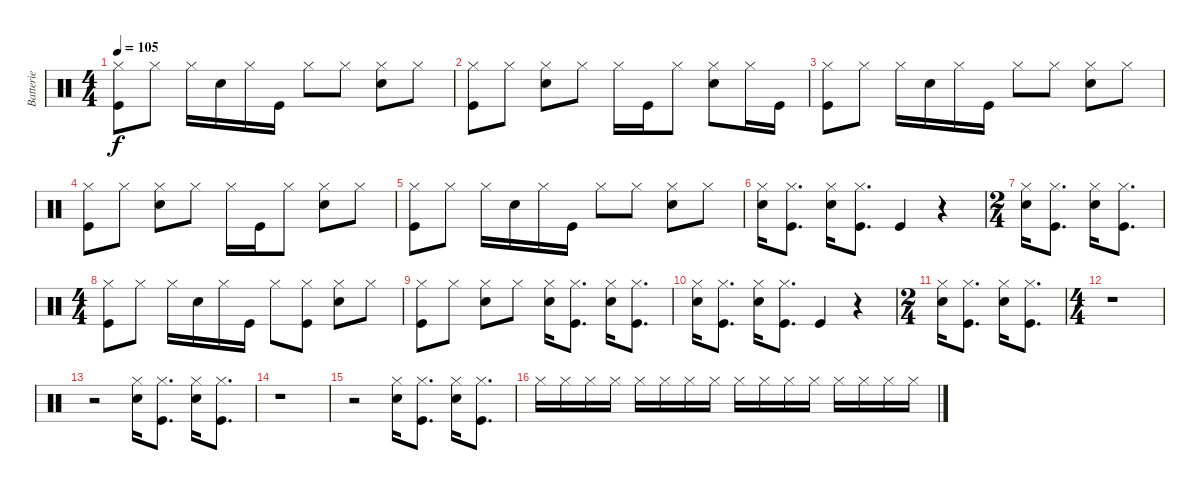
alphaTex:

\track ("Batterie" "Batterie") {instrument percussion}
\staff {score}
\articulation defaults
\ts (4 4)
\tempo 105
\clef neutral
\ks c
("Hi-Hat (closed)" "Kick (hit)").8{dy f} "Hi-Hat (closed)".8 "Hi-Hat (closed)".16 "Snare (hit) 2".16 "Hi-Hat (closed)".16 "Kick (hit)".16 "Hi-Hat (closed)".8 "Hi-Hat (closed)".8 ("Hi-Hat (closed)" "Snare (hit) 2").8 "Hi-Hat (closed)".8 |
("Hi-Hat (closed)" "Kick (hit)").8 "Hi-Hat (closed)".8 ("Hi-Hat (closed)" "Snare (hit) 2").8 "Hi-Hat (closed)".8 "Hi-Hat (closed)".16 "Kick (hit)".16 "Hi-Hat (closed)".8 ("Hi-Hat (closed)" "Snare (hit) 2").8 "Hi-Hat (closed)".16 "Kick (hit)".16 |
("Hi-Hat (closed)" "Kick (hit)").8 "Hi-Hat (closed)".8 "Hi-Hat (closed)".16 "Snare (hit) 2".16 "Hi-Hat (closed)".16 "Kick (hit)".16 "Hi-Hat (closed)".8 "Hi-Hat (closed)".8 ("Hi-Hat (closed)" "Snare (hit) 2").8 "Hi-Hat (closed)".8 |
("Hi-Hat (closed)" "Kick (hit)").8 "Hi-Hat (closed)".8 ("Hi-Hat (closed)" "Snare (hit) 2").8 "Hi-Hat (closed)".8 "Hi-Hat (closed)".16 "Kick (hit)".16 "Hi-Hat (closed)".8 ("Hi-Hat (closed)" "Snare (hit) 2").8 "Hi-Hat (closed)".8 |
("Hi-Hat (closed)" "Kick (hit)").8 "Hi-Hat (closed)".8 "Hi-Hat (closed)".16 "Snare (hit) 2".16 "Hi-Hat (closed)".16 "Kick (hit)".16 "Hi-Hat (closed)".8 "Hi-Hat (closed)".8 ("Hi-Hat (closed)" "Snare (hit) 2").8 "Hi-Hat (closed)".8 |
("Hi-Hat (closed)" "Snare (hit) 2").16 ("Hi-Hat (closed)" "Kick (hit)").8{d} ("Hi-Hat (closed)" "Snare (hit) 2").16 ("Hi-Hat (closed)" "Kick (hit)").8{d} "Kick (hit)".4 r.4 |
\ts (2 4)
("Hi-Hat (closed)" "Snare (hit) 2").16 ("Hi-Hat (closed)" "Kick (hit)").8{d} ("Hi-Hat (closed)" "Snare (hit) 2").16 ("Hi-Hat (closed)" "Kick (hit)").8{d} |
\ts (4 4)
("Hi-Hat (closed)" "Kick (hit)").8 "Hi-Hat (closed)".8 "Hi-Hat (closed)".16 "Snare (hit) 2".16 "Hi-Hat (closed)".16 "Kick (hit)".16 "Hi-Hat (closed)".8 ("Hi-Hat (closed)" "Kick (hit)").8 ("Hi-Hat (closed)" "Snare (hit) 2").8 "Hi-Hat (closed)".8 |
("Hi-Hat (closed)" "Kick (hit)").8 "Hi-Hat (closed)".8 ("Hi-Hat (closed)" "Snare (hit) 2").8 "Hi-Hat (closed)".8 ("Hi-Hat (closed)" "Snare (hit) 2").16 ("Hi-Hat (closed)" "Kick (hit)").8{d} ("Hi-Hat (closed)" "Snare (hit) 2").16 ("Hi-Hat (closed)" "Kick (hit)").8{d} |
("Hi-Hat (closed)" "Snare (hit) 2").16 ("Hi-Hat (closed)" "Kick (hit)").8{d} ("Hi-Hat (closed)" "Snare (hit) 2").16 ("Hi-Hat (closed)" "Kick (hit)").8{d} "Kick (hit)".4 r.4 |
\ts (2 4)
("Hi-Hat (closed)" "Snare (hit) 2").16 ("Hi-Hat (closed)" "Kick (hit)").8{d} ("Hi-Hat (closed)" "Snare (hit) 2").16 ("Hi-Hat (closed)" "Kick (hit)").8{d} |
\ts (4 4)
r.1 |
r.2 ("Hi-Hat (closed)" "Snare (hit) 2").16 ("Hi-Hat (closed)" "Kick (hit)").8{d} ("Hi-Hat (closed)" "Snare (hit) 2").16 ("Hi-Hat (closed)" "Kick (hit)").8{d} |
r.1 |
r.2 ("Hi-Hat (closed)" "Snare (hit) 2").16 ("Hi-Hat (closed)" "Kick (hit)").8{d} ("Hi-Hat (closed)" "Snare (hit) 2").16 ("Hi-Hat (closed)" "Kick (hit)").8{d} |
"Hi-Hat (closed)".16 "Hi-Hat (closed)".16 "Hi-Hat (closed)".16 "Hi-Hat (closed)".16 "Hi-Hat (closed)".16 "Hi-Hat (closed)".16 "Hi-Hat (closed)".16 "Hi-Hat (closed)".16 "Hi-Hat (closed)".16 "Hi-Hat (closed)".16 "Hi-Hat (closed)".16 "Hi-Hat (closed)".16 "Hi-Hat (closed)".16 "Hi-Hat (closed)".16 "Hi-Hat (closed)".16 "Hi-Hat (closed)".16
